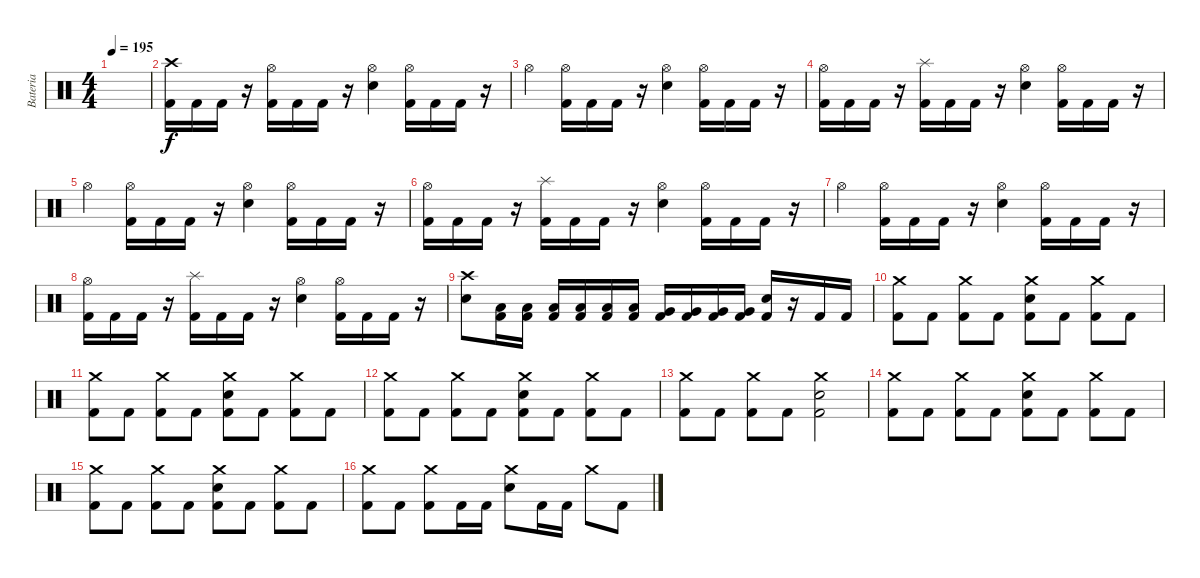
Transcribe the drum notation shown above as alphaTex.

\track ("Bateria" "Bateria") {instrument percussion}
\staff {score}
\articulation defaults
\ts (4 4)
\tempo 195
\clef neutral
\ks c
|
("Crash high (hit)" "Kick (hit) 2").16 "Kick (hit) 2".16 "Kick (hit) 2".16 r.16 ("Hi-Hat (open)" "Kick (hit) 2").16 "Kick (hit) 2".16 "Kick (hit) 2".16 r.16 ("Snare (hit) 2" "Hi-Hat (open)").4 ("Hi-Hat (open)" "Kick (hit) 2").16 "Kick (hit) 2".16 "Kick (hit) 2".16 r.16 |
"Hi-Hat (open)".4 ("Hi-Hat (open)" "Kick (hit) 2").16 "Kick (hit) 2".16 "Kick (hit) 2".16 r.16 ("Snare (hit) 2" "Hi-Hat (open)").4 ("Hi-Hat (open)" "Kick (hit) 2").16 "Kick (hit) 2".16 "Kick (hit) 2".16 r.16 |
("Hi-Hat (open)" "Kick (hit) 2").16 "Kick (hit) 2".16 "Kick (hit) 2".16 r.16 ("Splash (hit)" "Kick (hit) 2").16 "Kick (hit) 2".16 "Kick (hit) 2".16 r.16 ("Snare (hit) 2" "Hi-Hat (open)").4 ("Hi-Hat (open)" "Kick (hit) 2").16 "Kick (hit) 2".16 "Kick (hit) 2".16 r.16 |
"Hi-Hat (open)".4 ("Hi-Hat (open)" "Kick (hit) 2").16 "Kick (hit) 2".16 "Kick (hit) 2".16 r.16 ("Snare (hit) 2" "Hi-Hat (open)").4 ("Hi-Hat (open)" "Kick (hit) 2").16 "Kick (hit) 2".16 "Kick (hit) 2".16 r.16 |
("Hi-Hat (open)" "Kick (hit) 2").16 "Kick (hit) 2".16 "Kick (hit) 2".16 r.16 ("Splash (hit)" "Kick (hit) 2").16 "Kick (hit) 2".16 "Kick (hit) 2".16 r.16 ("Snare (hit) 2" "Hi-Hat (open)").4 ("Hi-Hat (open)" "Kick (hit) 2").16 "Kick (hit) 2".16 "Kick (hit) 2".16 r.16 |
"Hi-Hat (open)".4 ("Hi-Hat (open)" "Kick (hit) 2").16 "Kick (hit) 2".16 "Kick (hit) 2".16 r.16 ("Snare (hit) 2" "Hi-Hat (open)").4 ("Hi-Hat (open)" "Kick (hit) 2").16 "Kick (hit) 2".16 "Kick (hit) 2".16 r.16 |
("Hi-Hat (open)" "Kick (hit) 2").16 "Kick (hit) 2".16 "Kick (hit) 2".16 r.16 ("Splash (hit)" "Kick (hit) 2").16 "Kick (hit) 2".16 "Kick (hit) 2".16 r.16 ("Snare (hit) 2" "Hi-Hat (open)").4 ("Hi-Hat (open)" "Kick (hit) 2").16 "Kick (hit) 2".16 "Kick (hit) 2".16 r.16 |
("Snare (hit) 2" "Crash high (hit)").8 ("Low Tom (hit)" "Kick (hit) 2").16 ("Low Tom (hit)" "Kick (hit) 2").16 ("Low Tom (hit)" "Kick (hit) 2").16 ("Low Tom (hit)" "Kick (hit) 2").16 ("Low Tom (hit)" "Kick (hit) 2").16 ("Low Tom (hit)" "Kick (hit) 2").16 ("Very Low Tom (hit)" "Kick (hit) 2").16 ("Very Low Tom (hit)" "Kick (hit) 2").16 ("Very Low Tom (hit)" "Kick (hit) 2").16 ("Very Low Tom (hit)" "Kick (hit) 2").16 ("Snare (hit) 2" "Kick (hit) 2").16 r.16 "Kick (hit) 2".16 "Kick (hit) 2".16 |
("Crash medium (hit)" "Kick (hit) 2").8 "Kick (hit) 2".8 ("Crash medium (hit)" "Kick (hit) 2").8 "Kick (hit) 2".8 ("Snare (hit) 2" "Crash medium (hit)" "Kick (hit) 2").8 "Kick (hit) 2".8 ("Crash medium (hit)" "Kick (hit) 2").8 "Kick (hit) 2".8 |
("Crash medium (hit)" "Kick (hit) 2").8 "Kick (hit) 2".8 ("Crash medium (hit)" "Kick (hit) 2").8 "Kick (hit) 2".8 ("Snare (hit) 2" "Crash medium (hit)" "Kick (hit) 2").8 "Kick (hit) 2".8 ("Crash medium (hit)" "Kick (hit) 2").8 "Kick (hit) 2".8 |
("Crash medium (hit)" "Kick (hit) 2").8 "Kick (hit) 2".8 ("Crash medium (hit)" "Kick (hit) 2").8 "Kick (hit) 2".8 ("Snare (hit) 2" "Crash medium (hit)" "Kick (hit) 2").8 "Kick (hit) 2".8 ("Crash medium (hit)" "Kick (hit) 2").8 "Kick (hit) 2".8 |
("Crash medium (hit)" "Kick (hit) 2").8 "Kick (hit) 2".8 ("Crash medium (hit)" "Kick (hit) 2").8 "Kick (hit) 2".8 ("Snare (hit) 2" "Crash medium (hit)" "Kick (hit) 2").2 |
("Crash medium (hit)" "Kick (hit) 2").8 "Kick (hit) 2".8 ("Crash medium (hit)" "Kick (hit) 2").8 "Kick (hit) 2".8 ("Snare (hit) 2" "Crash medium (hit)" "Kick (hit) 2").8 "Kick (hit) 2".8 ("Crash medium (hit)" "Kick (hit) 2").8 "Kick (hit) 2".8 |
("Crash medium (hit)" "Kick (hit) 2").8 "Kick (hit) 2".8 ("Crash medium (hit)" "Kick (hit) 2").8 "Kick (hit) 2".8 ("Snare (hit) 2" "Crash medium (hit)" "Kick (hit) 2").8 "Kick (hit) 2".8 ("Crash medium (hit)" "Kick (hit) 2").8 "Kick (hit) 2".8 |
("Crash medium (hit)" "Kick (hit) 2").8 "Kick (hit) 2".8 ("Crash medium (hit)" "Kick (hit) 2").8 "Kick (hit) 2".16 "Kick (hit) 2".16 ("Snare (hit) 2" "Crash medium (hit)").8 "Kick (hit) 2".16 "Kick (hit) 2".16 "Crash medium (hit)".8 "Kick (hit) 2".8
